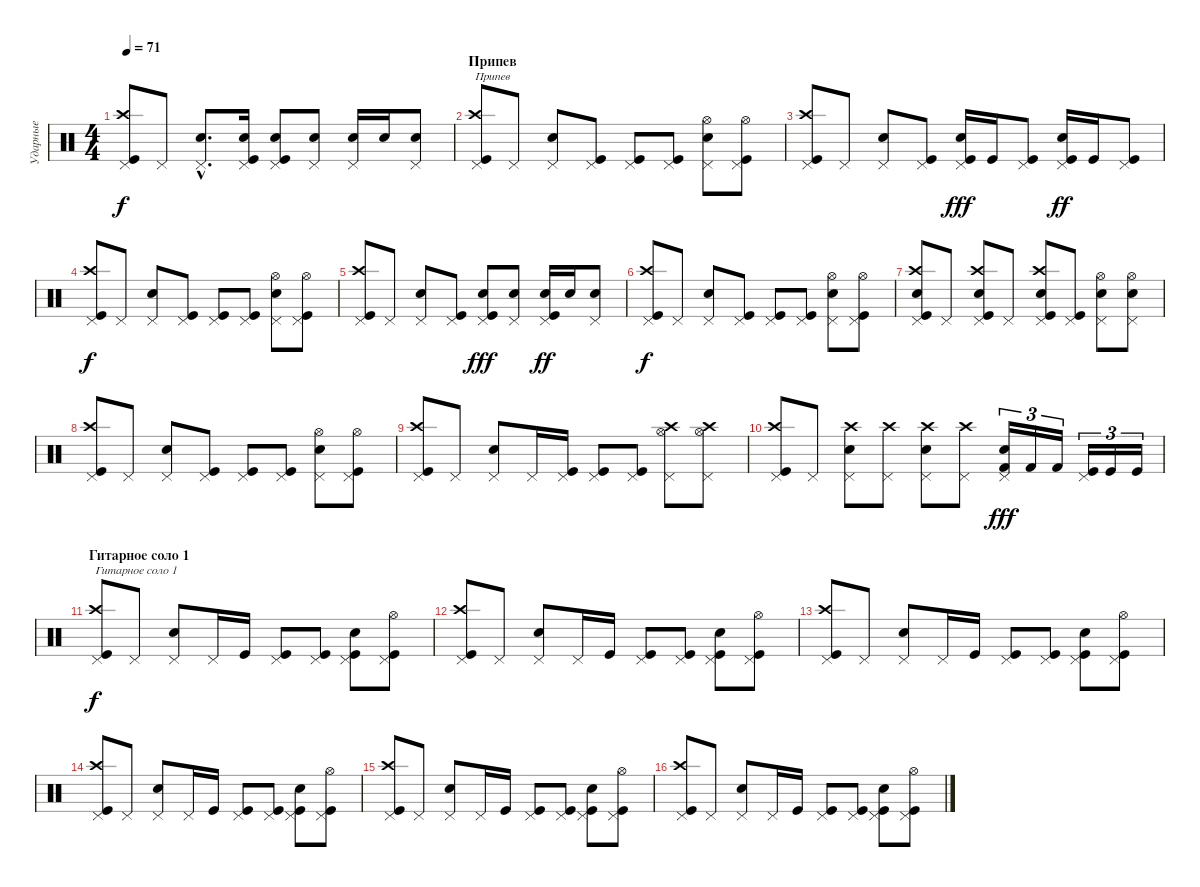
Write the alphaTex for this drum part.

\track ("Ударные" "Ударные") {instrument percussion}
\staff {score}
\articulation defaults
\ts (4 4)
\tempo 71
\clef neutral
\ks c
("Kick (hit)" "Crash high (hit)" "Pedal Hi-Hat (hit)").8{dy f} "Pedal Hi-Hat (hit)".8 ("Snare (hit) 2"{hac} "Pedal Hi-Hat (hit)"{hac}).8{d} ("Snare (hit) 2" "Kick (hit)" "Pedal Hi-Hat (hit)").16 ("Kick (hit)" "Snare (hit) 2" "Pedal Hi-Hat (hit)").8 ("Snare (hit) 2" "Pedal Hi-Hat (hit)").8 ("Snare (hit) 2" "Pedal Hi-Hat (hit)").16 "Snare (hit) 2".16 ("Snare (hit) 2" "Pedal Hi-Hat (hit)").8 |
\section ("" "Припев")
("Crash high (hit)" "Kick (hit)" "Pedal Hi-Hat (hit)").8{txt "Припев"} "Pedal Hi-Hat (hit)".8 ("Snare (hit) 2" "Pedal Hi-Hat (hit)").8 ("Kick (hit)" "Pedal Hi-Hat (hit)").8 ("Kick (hit)" "Pedal Hi-Hat (hit)").8 ("Kick (hit)" "Pedal Hi-Hat (hit)").8 ("Hi-Hat (open)" "Snare (hit) 2" "Pedal Hi-Hat (hit)").8 ("Hi-Hat (open)" "Kick (hit)" "Pedal Hi-Hat (hit)").8 |
("Crash high (hit)" "Kick (hit)" "Pedal Hi-Hat (hit)").8 "Pedal Hi-Hat (hit)".8 ("Snare (hit) 2" "Pedal Hi-Hat (hit)").8 ("Kick (hit)" "Pedal Hi-Hat (hit)").8 ("Kick (hit)" "Snare (hit) 2" "Pedal Hi-Hat (hit)").16{dy fff} "Kick (hit)".16 ("Kick (hit)" "Pedal Hi-Hat (hit)").8 ("Kick (hit)" "Snare (hit) 2" "Pedal Hi-Hat (hit)").16{dy ff} "Kick (hit)".16 ("Kick (hit)" "Pedal Hi-Hat (hit)").8 |
("Crash high (hit)" "Kick (hit)" "Pedal Hi-Hat (hit)").8{dy f} "Pedal Hi-Hat (hit)".8 ("Snare (hit) 2" "Pedal Hi-Hat (hit)").8 ("Kick (hit)" "Pedal Hi-Hat (hit)").8 ("Kick (hit)" "Pedal Hi-Hat (hit)").8 ("Kick (hit)" "Pedal Hi-Hat (hit)").8 ("Hi-Hat (open)" "Snare (hit) 2" "Pedal Hi-Hat (hit)").8 ("Hi-Hat (open)" "Kick (hit)" "Pedal Hi-Hat (hit)").8 |
("Crash high (hit)" "Kick (hit)" "Pedal Hi-Hat (hit)").8 "Pedal Hi-Hat (hit)".8 ("Snare (hit) 2" "Pedal Hi-Hat (hit)").8 ("Kick (hit)" "Pedal Hi-Hat (hit)").8 ("Kick (hit)" "Snare (hit) 2" "Pedal Hi-Hat (hit)").8{dy fff} ("Snare (hit) 2" "Pedal Hi-Hat (hit)").8 ("Kick (hit)" "Snare (hit) 2" "Pedal Hi-Hat (hit)").16{dy ff} "Snare (hit) 2".16 ("Snare (hit) 2" "Pedal Hi-Hat (hit)").8 |
("Crash high (hit)" "Kick (hit)" "Pedal Hi-Hat (hit)").8{dy f} "Pedal Hi-Hat (hit)".8 ("Snare (hit) 2" "Pedal Hi-Hat (hit)").8 ("Kick (hit)" "Pedal Hi-Hat (hit)").8 ("Kick (hit)" "Pedal Hi-Hat (hit)").8 ("Kick (hit)" "Pedal Hi-Hat (hit)").8 ("Hi-Hat (open)" "Snare (hit) 2" "Pedal Hi-Hat (hit)").8 ("Hi-Hat (open)" "Kick (hit)" "Pedal Hi-Hat (hit)").8 |
("Kick (hit)" "Snare (hit) 2" "Crash high (hit)" "Pedal Hi-Hat (hit)").8 "Pedal Hi-Hat (hit)".8 ("Kick (hit)" "Snare (hit) 2" "Crash high (hit)" "Pedal Hi-Hat (hit)").8 "Pedal Hi-Hat (hit)".8 ("Kick (hit)" "Snare (hit) 2" "Crash high (hit)" "Pedal Hi-Hat (hit)").8 ("Kick (hit)" "Pedal Hi-Hat (hit)").8 ("Hi-Hat (open)" "Snare (hit) 2" "Pedal Hi-Hat (hit)").8 ("Hi-Hat (open)" "Snare (hit) 2" "Pedal Hi-Hat (hit)").8 |
("Crash high (hit)" "Kick (hit)" "Pedal Hi-Hat (hit)").8 "Pedal Hi-Hat (hit)".8 ("Snare (hit) 2" "Pedal Hi-Hat (hit)").8 ("Kick (hit)" "Pedal Hi-Hat (hit)").8 ("Kick (hit)" "Pedal Hi-Hat (hit)").8 ("Kick (hit)" "Pedal Hi-Hat (hit)").8 ("Hi-Hat (open)" "Snare (hit) 2" "Pedal Hi-Hat (hit)").8 ("Hi-Hat (open)" "Kick (hit)" "Pedal Hi-Hat (hit)").8 |
("Kick (hit)" "Crash high (hit)" "Pedal Hi-Hat (hit)").8 "Pedal Hi-Hat (hit)".8 ("Snare (hit) 2" "Pedal Hi-Hat (hit)").8 "Pedal Hi-Hat (hit)".16 ("Kick (hit)" "Pedal Hi-Hat (hit)").16 ("Kick (hit)" "Pedal Hi-Hat (hit)").8 ("Kick (hit)" "Pedal Hi-Hat (hit)").8 ("Crash high (hit)" "Hi-Hat (open)" "Pedal Hi-Hat (hit)").8 ("Crash high (hit)" "Hi-Hat (open)" "Pedal Hi-Hat (hit)").8 |
("Kick (hit)" "Crash high (hit)" "Pedal Hi-Hat (hit)").8 "Pedal Hi-Hat (hit)".8 ("Snare (hit) 2" "Crash high (hit)" "Pedal Hi-Hat (hit)").8 ("Crash high (hit)" "Pedal Hi-Hat (hit)").8 ("Snare (hit) 2" "Crash high (hit)" "Pedal Hi-Hat (hit)").8 ("Crash high (hit)" "Pedal Hi-Hat (hit)").8 ("Snare (hit) 2" "Kick (hit) 2" "Pedal Hi-Hat (hit)").16{tu (3 2) dy fff} "Kick (hit) 2".16{tu (3 2)} "Kick (hit) 2".16{tu (3 2)} ("Kick (hit)" "Pedal Hi-Hat (hit)").16{tu (3 2)} "Kick (hit)".16{tu (3 2)} "Kick (hit)".16{tu (3 2)} |
\section ("" "Гитарное соло 1")
("Crash high (hit)" "Kick (hit)" "Pedal Hi-Hat (hit)").8{txt "Гитарное соло 1" dy f} "Pedal Hi-Hat (hit)".8 ("Snare (hit) 2" "Pedal Hi-Hat (hit)").8 "Pedal Hi-Hat (hit)".16 "Kick (hit)".16 ("Kick (hit)" "Pedal Hi-Hat (hit)").8 ("Kick (hit)" "Pedal Hi-Hat (hit)").8 ("Kick (hit)" "Snare (hit) 2" "Pedal Hi-Hat (hit)").8 ("Hi-Hat (open)" "Kick (hit)" "Pedal Hi-Hat (hit)").8 |
("Crash high (hit)" "Kick (hit)" "Pedal Hi-Hat (hit)").8 "Pedal Hi-Hat (hit)".8 ("Snare (hit) 2" "Pedal Hi-Hat (hit)").8 "Pedal Hi-Hat (hit)".16 "Kick (hit)".16 ("Kick (hit)" "Pedal Hi-Hat (hit)").8 ("Kick (hit)" "Pedal Hi-Hat (hit)").8 ("Kick (hit)" "Snare (hit) 2" "Pedal Hi-Hat (hit)").8 ("Hi-Hat (open)" "Kick (hit)" "Pedal Hi-Hat (hit)").8 |
("Crash high (hit)" "Kick (hit)" "Pedal Hi-Hat (hit)").8 "Pedal Hi-Hat (hit)".8 ("Snare (hit) 2" "Pedal Hi-Hat (hit)").8 "Pedal Hi-Hat (hit)".16 "Kick (hit)".16 ("Kick (hit)" "Pedal Hi-Hat (hit)").8 ("Kick (hit)" "Pedal Hi-Hat (hit)").8 ("Kick (hit)" "Snare (hit) 2" "Pedal Hi-Hat (hit)").8 ("Hi-Hat (open)" "Kick (hit)" "Pedal Hi-Hat (hit)").8 |
("Crash high (hit)" "Kick (hit)" "Pedal Hi-Hat (hit)").8 "Pedal Hi-Hat (hit)".8 ("Snare (hit) 2" "Pedal Hi-Hat (hit)").8 "Pedal Hi-Hat (hit)".16 "Kick (hit)".16 ("Kick (hit)" "Pedal Hi-Hat (hit)").8 ("Kick (hit)" "Pedal Hi-Hat (hit)").8 ("Kick (hit)" "Snare (hit) 2" "Pedal Hi-Hat (hit)").8 ("Hi-Hat (open)" "Kick (hit)" "Pedal Hi-Hat (hit)").8 |
("Crash high (hit)" "Kick (hit)" "Pedal Hi-Hat (hit)").8 "Pedal Hi-Hat (hit)".8 ("Snare (hit) 2" "Pedal Hi-Hat (hit)").8 "Pedal Hi-Hat (hit)".16 "Kick (hit)".16 ("Kick (hit)" "Pedal Hi-Hat (hit)").8 ("Kick (hit)" "Pedal Hi-Hat (hit)").8 ("Kick (hit)" "Snare (hit) 2" "Pedal Hi-Hat (hit)").8 ("Hi-Hat (open)" "Kick (hit)" "Pedal Hi-Hat (hit)").8 |
("Crash high (hit)" "Kick (hit)" "Pedal Hi-Hat (hit)").8 "Pedal Hi-Hat (hit)".8 ("Snare (hit) 2" "Pedal Hi-Hat (hit)").8 "Pedal Hi-Hat (hit)".16 "Kick (hit)".16 ("Kick (hit)" "Pedal Hi-Hat (hit)").8 ("Kick (hit)" "Pedal Hi-Hat (hit)").8 ("Kick (hit)" "Snare (hit) 2" "Pedal Hi-Hat (hit)").8 ("Hi-Hat (open)" "Kick (hit)" "Pedal Hi-Hat (hit)").8
